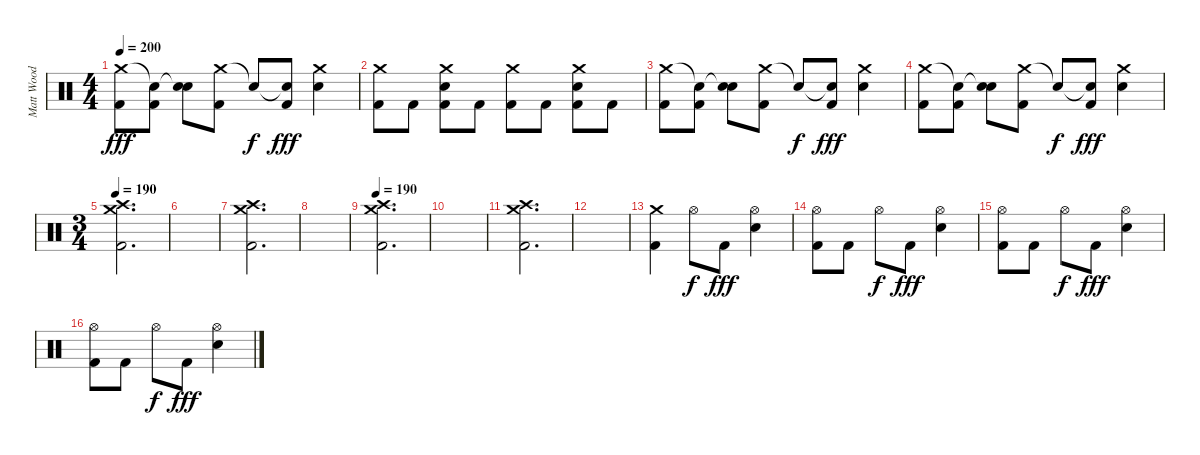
\track ("Matt Wood" "Matt Wood") {instrument percussion}
\staff {score}
\articulation defaults
\ts (4 4)
\tempo 200
\clef neutral
\ks c
("Crash medium (hit)" "Kick (hit) 2").8{dy fff} ("Snare (hit)"{t} "Kick (hit) 2").8 ("Snare (hit)"{t} "Electric Snare (hit)").8 ("Crash medium (hit)" "Kick (hit) 2").8 "Snare (hit)"{t}.8{dy f} ("Snare (hit)"{t} "Kick (hit) 2").8{dy fff} ("Crash medium (hit)" "Electric Snare (hit)").4 |
("Crash medium (hit)" "Kick (hit) 2").8 "Kick (hit) 2".8 ("Crash medium (hit)" "Electric Snare (hit)" "Kick (hit) 2").8 "Kick (hit) 2".8 ("Crash medium (hit)" "Kick (hit) 2").8 "Kick (hit) 2".8 ("Crash medium (hit)" "Electric Snare (hit)" "Kick (hit) 2").8 "Kick (hit) 2".8 |
("Crash medium (hit)" "Kick (hit) 2").8 ("Snare (hit)"{t} "Kick (hit) 2").8 ("Snare (hit)"{t} "Electric Snare (hit)").8 ("Crash medium (hit)" "Kick (hit) 2").8 "Snare (hit)"{t}.8{dy f} ("Snare (hit)"{t} "Kick (hit) 2").8{dy fff} ("Crash medium (hit)" "Electric Snare (hit)").4 |
("Crash medium (hit)" "Kick (hit) 2").8 ("Snare (hit)"{t} "Kick (hit) 2").8 ("Snare (hit)"{t} "Electric Snare (hit)").8 ("Crash medium (hit)" "Kick (hit) 2").8 "Snare (hit)"{t}.8{dy f} ("Snare (hit)"{t} "Kick (hit) 2").8{dy fff} ("Crash medium (hit)" "Electric Snare (hit)").4 |
\ts (3 4)
\tempo 190
("Crash medium (hit)" "Crash high (hit)" "Kick (hit) 2").2{d} |
|
("Crash medium (hit)" "Crash high (hit)" "Kick (hit) 2").2{d} |
|
\tempo 190
("Crash medium (hit)" "Crash high (hit)" "Kick (hit) 2").2{d} |
|
("Crash medium (hit)" "Crash high (hit)" "Kick (hit) 2").2{d} |
|
("Crash medium (hit)" "Kick (hit) 2").4 "Hi-Hat (open)".8{dy f} "Kick (hit) 2".8{dy fff} ("Hi-Hat (open)" "Electric Snare (hit)").4 |
("Hi-Hat (open)" "Kick (hit) 2").8 "Kick (hit) 2".8 "Hi-Hat (open)".8{dy f} "Kick (hit) 2".8{dy fff} ("Hi-Hat (open)" "Electric Snare (hit)").4 |
("Hi-Hat (open)" "Kick (hit) 2").8 "Kick (hit) 2".8 "Hi-Hat (open)".8{dy f} "Kick (hit) 2".8{dy fff} ("Hi-Hat (open)" "Electric Snare (hit)").4 |
("Hi-Hat (open)" "Kick (hit) 2").8 "Kick (hit) 2".8 "Hi-Hat (open)".8{dy f} "Kick (hit) 2".8{dy fff} ("Hi-Hat (open)" "Electric Snare (hit)").4
